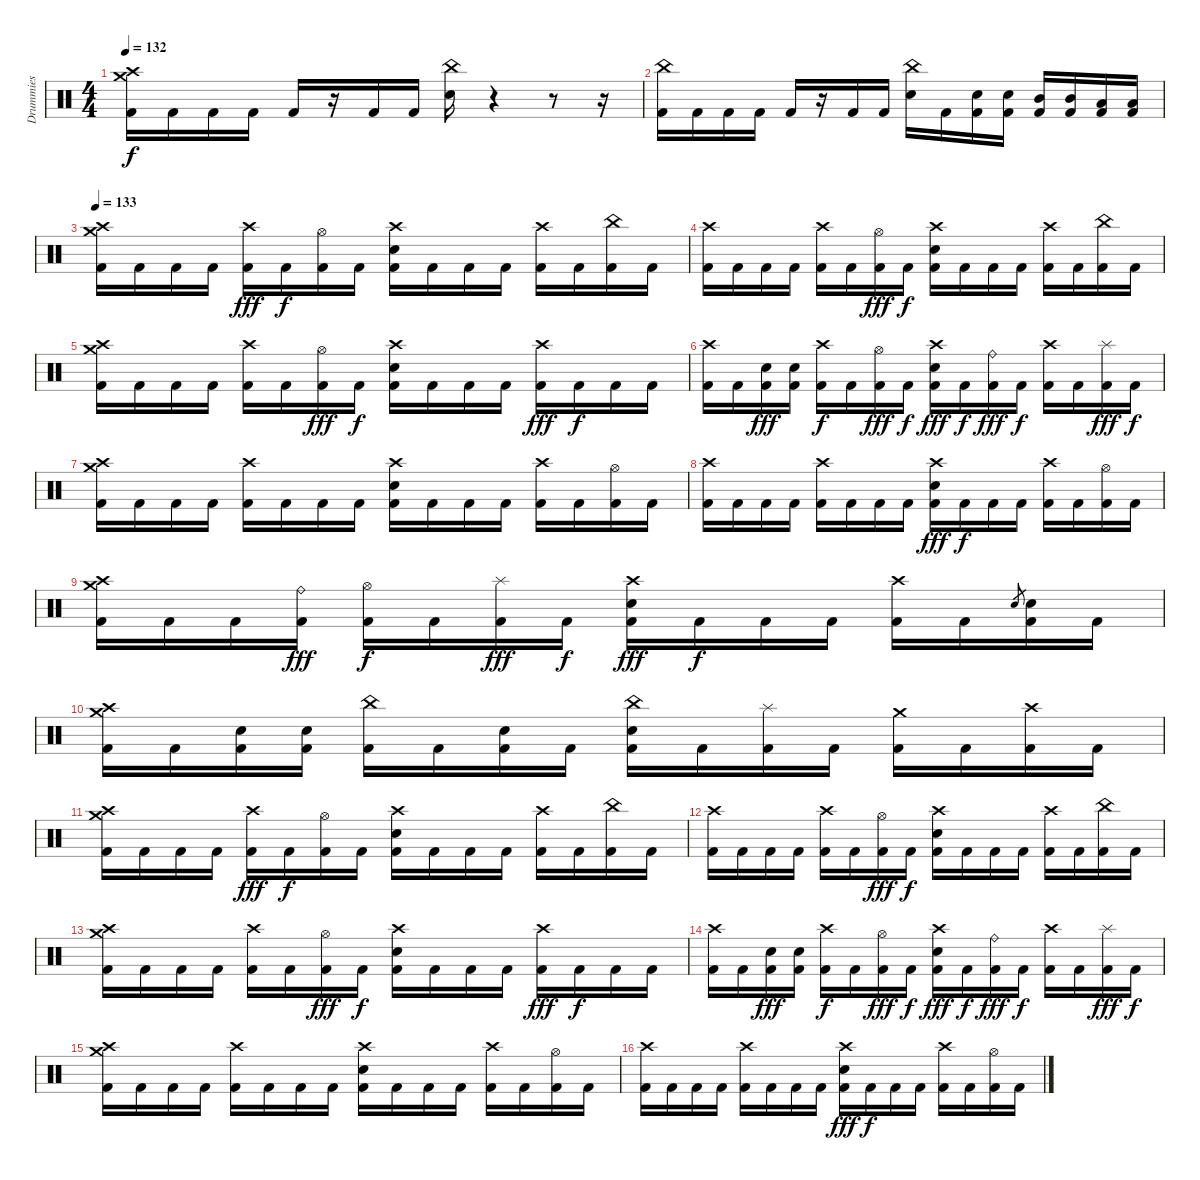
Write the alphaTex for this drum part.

\track ("Drummies" "Drummies") {instrument percussion}
\staff {score}
\articulation defaults
\ts (4 4)
\tempo 132
\clef neutral
\ks c
("Crash medium (hit)" "Crash high (hit)" "Kick (hit) 2").16{dy f} "Kick (hit) 2".16 "Kick (hit) 2".16 "Kick (hit) 2".16 "Kick (hit) 2".16 r.16 "Kick (hit) 2".16 "Kick (hit) 2".16 ("China (hit)" "Electric Snare (hit)").16 r.4 r.8 r.16 |
("China (hit)" "Kick (hit) 2").16 "Kick (hit) 2".16 "Kick (hit) 2".16 "Kick (hit) 2".16 "Kick (hit) 2".16 r.16 "Kick (hit) 2".16 "Kick (hit) 2".16 ("China (hit)" "Electric Snare (hit)").16 "Kick (hit) 2".16 ("Electric Snare (hit)" "Kick (hit) 2").16 ("Electric Snare (hit)" "Kick (hit) 2").16 ("Mid Tom (hit)" "Kick (hit) 2").16 ("Mid Tom (hit)" "Kick (hit) 2").16 ("Low Tom (hit)" "Kick (hit) 2").16 ("Low Tom (hit)" "Kick (hit) 2").16 |
\tempo 133
("Crash high (hit)" "Crash medium (hit)" "Kick (hit) 2").16 "Kick (hit) 2".16 "Kick (hit) 2".16 "Kick (hit) 2".16 ("Crash high (hit)" "Kick (hit) 2").16{dy fff} "Kick (hit) 2".16{dy f} ("Hi-Hat (open)" "Kick (hit) 2").16 "Kick (hit) 2".16 ("Crash high (hit)" "Electric Snare (hit)" "Kick (hit) 2").16 "Kick (hit) 2".16 "Kick (hit) 2".16 "Kick (hit) 2".16 ("Crash high (hit)" "Kick (hit) 2").16 "Kick (hit) 2".16 ("China (hit)" "Kick (hit) 2").16 "Kick (hit) 2".16 |
("Crash high (hit)" "Kick (hit) 2").16 "Kick (hit) 2".16 "Kick (hit) 2".16 "Kick (hit) 2".16 ("Crash high (hit)" "Kick (hit) 2").16 "Kick (hit) 2".16 ("Hi-Hat (open)" "Kick (hit) 2").16{dy fff} "Kick (hit) 2".16{dy f} ("Crash high (hit)" "Electric Snare (hit)" "Kick (hit) 2").16 "Kick (hit) 2".16 "Kick (hit) 2".16 "Kick (hit) 2".16 ("Crash high (hit)" "Kick (hit) 2").16 "Kick (hit) 2".16 ("China (hit)" "Kick (hit) 2").16 "Kick (hit) 2".16 |
("Crash high (hit)" "Crash medium (hit)" "Kick (hit) 2").16 "Kick (hit) 2".16 "Kick (hit) 2".16 "Kick (hit) 2".16 ("Crash high (hit)" "Kick (hit) 2").16 "Kick (hit) 2".16 ("Hi-Hat (open)" "Kick (hit) 2").16{dy fff} "Kick (hit) 2".16{dy f} ("Crash high (hit)" "Electric Snare (hit)" "Kick (hit) 2").16 "Kick (hit) 2".16 "Kick (hit) 2".16 "Kick (hit) 2".16 ("Crash high (hit)" "Kick (hit) 2").16{dy fff} "Kick (hit) 2".16{dy f} "Kick (hit) 2".16 "Kick (hit) 2".16 |
("Crash high (hit)" "Kick (hit) 2").16 "Kick (hit) 2".16 ("Electric Snare (hit)" "Kick (hit) 2").16{dy fff} ("Electric Snare (hit)" "Kick (hit) 2").16 ("Crash high (hit)" "Kick (hit) 2").16{dy f} "Kick (hit) 2".16 ("Hi-Hat (open)" "Kick (hit) 2").16{dy fff} "Kick (hit) 2".16{dy f} ("Crash high (hit)" "Electric Snare (hit)" "Kick (hit) 2").16{dy fff} "Kick (hit) 2".16{dy f} ("Ride (bell)" "Kick (hit) 2").16{dy fff} "Kick (hit) 2".16{dy f} ("Crash high (hit)" "Kick (hit) 2").16 "Kick (hit) 2".16 ("Splash (hit)" "Kick (hit) 2").16{dy fff} "Kick (hit) 2".16{dy f} |
("Crash high (hit)" "Crash medium (hit)" "Kick (hit) 2").16 "Kick (hit) 2".16 "Kick (hit) 2".16 "Kick (hit) 2".16 ("Crash high (hit)" "Kick (hit) 2").16 "Kick (hit) 2".16 "Kick (hit) 2".16 "Kick (hit) 2".16 ("Crash high (hit)" "Electric Snare (hit)" "Kick (hit) 2").16 "Kick (hit) 2".16 "Kick (hit) 2".16 "Kick (hit) 2".16 ("Crash high (hit)" "Kick (hit) 2").16 "Kick (hit) 2".16 ("Hi-Hat (open)" "Kick (hit) 2").16 "Kick (hit) 2".16 |
("Crash high (hit)" "Kick (hit) 2").16 "Kick (hit) 2".16 "Kick (hit) 2".16 "Kick (hit) 2".16 ("Crash high (hit)" "Kick (hit) 2").16 "Kick (hit) 2".16 "Kick (hit) 2".16 "Kick (hit) 2".16 ("Crash high (hit)" "Electric Snare (hit)" "Kick (hit) 2").16{dy fff} "Kick (hit) 2".16{dy f} "Kick (hit) 2".16 "Kick (hit) 2".16 ("Crash high (hit)" "Kick (hit) 2").16 "Kick (hit) 2".16 ("Hi-Hat (open)" "Kick (hit) 2").16 "Kick (hit) 2".16 |
("Crash high (hit)" "Crash medium (hit)" "Kick (hit) 2").16 "Kick (hit) 2".16 "Kick (hit) 2".16 ("Ride (bell)" "Kick (hit) 2").16{dy fff} ("Hi-Hat (open)" "Kick (hit) 2").16{dy f} "Kick (hit) 2".16 ("Splash (hit)" "Kick (hit) 2").16{dy fff} "Kick (hit) 2".16{dy f} ("Crash high (hit)" "Electric Snare (hit)" "Kick (hit) 2").16{dy fff} "Kick (hit) 2".16{dy f} "Kick (hit) 2".16 "Kick (hit) 2".16 ("Crash high (hit)" "Kick (hit) 2").16 "Kick (hit) 2".16 "Electric Snare (hit)".8{gr} ("Electric Snare (hit)" "Kick (hit) 2").16 "Kick (hit) 2".16 |
("Crash medium (hit)" "Crash high (hit)" "Kick (hit) 2").16 "Kick (hit) 2".16 ("Electric Snare (hit)" "Kick (hit) 2").16 ("Electric Snare (hit)" "Kick (hit) 2").16 ("China (hit)" "Kick (hit) 2").16 "Kick (hit) 2".16 ("Electric Snare (hit)" "Kick (hit) 2").16 "Kick (hit) 2".16 ("China (hit)" "Electric Snare (hit)" "Kick (hit) 2").16 "Kick (hit) 2".16 ("Splash (hit)" "Kick (hit) 2").16 "Kick (hit) 2".16 ("Crash medium (hit)" "Kick (hit) 2").16 "Kick (hit) 2".16 ("Crash high (hit)" "Kick (hit) 2").16 "Kick (hit) 2".16 |
("Crash high (hit)" "Crash medium (hit)" "Kick (hit) 2").16 "Kick (hit) 2".16 "Kick (hit) 2".16 "Kick (hit) 2".16 ("Crash high (hit)" "Kick (hit) 2").16{dy fff} "Kick (hit) 2".16{dy f} ("Hi-Hat (open)" "Kick (hit) 2").16 "Kick (hit) 2".16 ("Crash high (hit)" "Electric Snare (hit)" "Kick (hit) 2").16 "Kick (hit) 2".16 "Kick (hit) 2".16 "Kick (hit) 2".16 ("Crash high (hit)" "Kick (hit) 2").16 "Kick (hit) 2".16 ("China (hit)" "Kick (hit) 2").16 "Kick (hit) 2".16 |
("Crash high (hit)" "Kick (hit) 2").16 "Kick (hit) 2".16 "Kick (hit) 2".16 "Kick (hit) 2".16 ("Crash high (hit)" "Kick (hit) 2").16 "Kick (hit) 2".16 ("Hi-Hat (open)" "Kick (hit) 2").16{dy fff} "Kick (hit) 2".16{dy f} ("Crash high (hit)" "Electric Snare (hit)" "Kick (hit) 2").16 "Kick (hit) 2".16 "Kick (hit) 2".16 "Kick (hit) 2".16 ("Crash high (hit)" "Kick (hit) 2").16 "Kick (hit) 2".16 ("China (hit)" "Kick (hit) 2").16 "Kick (hit) 2".16 |
("Crash high (hit)" "Crash medium (hit)" "Kick (hit) 2").16 "Kick (hit) 2".16 "Kick (hit) 2".16 "Kick (hit) 2".16 ("Crash high (hit)" "Kick (hit) 2").16 "Kick (hit) 2".16 ("Hi-Hat (open)" "Kick (hit) 2").16{dy fff} "Kick (hit) 2".16{dy f} ("Crash high (hit)" "Electric Snare (hit)" "Kick (hit) 2").16 "Kick (hit) 2".16 "Kick (hit) 2".16 "Kick (hit) 2".16 ("Crash high (hit)" "Kick (hit) 2").16{dy fff} "Kick (hit) 2".16{dy f} "Kick (hit) 2".16 "Kick (hit) 2".16 |
("Crash high (hit)" "Kick (hit) 2").16 "Kick (hit) 2".16 ("Electric Snare (hit)" "Kick (hit) 2").16{dy fff} ("Electric Snare (hit)" "Kick (hit) 2").16 ("Crash high (hit)" "Kick (hit) 2").16{dy f} "Kick (hit) 2".16 ("Hi-Hat (open)" "Kick (hit) 2").16{dy fff} "Kick (hit) 2".16{dy f} ("Crash high (hit)" "Electric Snare (hit)" "Kick (hit) 2").16{dy fff} "Kick (hit) 2".16{dy f} ("Ride (bell)" "Kick (hit) 2").16{dy fff} "Kick (hit) 2".16{dy f} ("Crash high (hit)" "Kick (hit) 2").16 "Kick (hit) 2".16 ("Splash (hit)" "Kick (hit) 2").16{dy fff} "Kick (hit) 2".16{dy f} |
("Crash high (hit)" "Crash medium (hit)" "Kick (hit) 2").16 "Kick (hit) 2".16 "Kick (hit) 2".16 "Kick (hit) 2".16 ("Crash high (hit)" "Kick (hit) 2").16 "Kick (hit) 2".16 "Kick (hit) 2".16 "Kick (hit) 2".16 ("Crash high (hit)" "Electric Snare (hit)" "Kick (hit) 2").16 "Kick (hit) 2".16 "Kick (hit) 2".16 "Kick (hit) 2".16 ("Crash high (hit)" "Kick (hit) 2").16 "Kick (hit) 2".16 ("Hi-Hat (open)" "Kick (hit) 2").16 "Kick (hit) 2".16 |
("Crash high (hit)" "Kick (hit) 2").16 "Kick (hit) 2".16 "Kick (hit) 2".16 "Kick (hit) 2".16 ("Crash high (hit)" "Kick (hit) 2").16 "Kick (hit) 2".16 "Kick (hit) 2".16 "Kick (hit) 2".16 ("Crash high (hit)" "Electric Snare (hit)" "Kick (hit) 2").16{dy fff} "Kick (hit) 2".16{dy f} "Kick (hit) 2".16 "Kick (hit) 2".16 ("Crash high (hit)" "Kick (hit) 2").16 "Kick (hit) 2".16 ("Hi-Hat (open)" "Kick (hit) 2").16 "Kick (hit) 2".16
